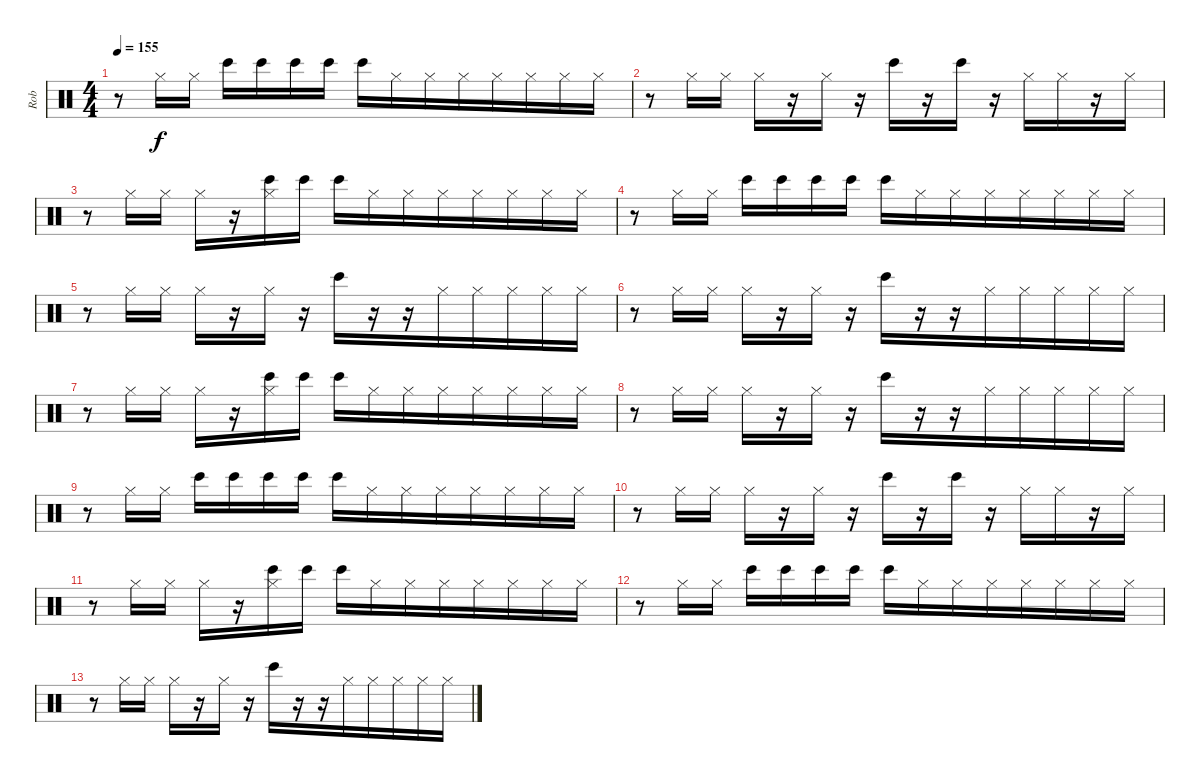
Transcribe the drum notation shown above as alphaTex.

\track ("Rob" "Rob") {instrument percussion}
\staff {score}
\articulation defaults
\ts (4 4)
\tempo 155
\clef neutral
\ks c
r.8{dy f beam merge} "Hi-Hat (closed)".16 "Hi-Hat (closed)".16 "Bongo High (hit)".16{beam merge} "Bongo High (hit)".16 "Bongo High (hit)".16 "Bongo High (hit)".16 "Bongo High (hit)".16 "Hi-Hat (closed)".16{beam merge} "Hi-Hat (closed)".16 "Hi-Hat (closed)".16{beam merge} "Hi-Hat (closed)".16{beam merge} "Hi-Hat (closed)".16{beam merge} "Hi-Hat (closed)".16 "Hi-Hat (closed)".16 |
r.8{beam merge} "Hi-Hat (closed)".16 "Hi-Hat (closed)".16 "Hi-Hat (closed)".16{beam merge} r.16 "Hi-Hat (closed)".16 r.16 "Bongo High (hit)".16 r.16{beam merge} "Bongo High (hit)".16 r.16{beam merge} "Hi-Hat (closed)".16{beam merge} "Hi-Hat (closed)".16{beam merge} r.16 "Hi-Hat (closed)".16 |
r.8{beam merge} "Hi-Hat (closed)".16 "Hi-Hat (closed)".16 "Hi-Hat (closed)".16{beam merge} r.16 ("Hi-Hat (closed)" "Bongo High (hit)").16 "Bongo High (hit)".16 "Bongo High (hit)".16 "Hi-Hat (closed)".16{beam merge} "Hi-Hat (closed)".16 "Hi-Hat (closed)".16{beam merge} "Hi-Hat (closed)".16{beam merge} "Hi-Hat (closed)".16{beam merge} "Hi-Hat (closed)".16 "Hi-Hat (closed)".16 |
r.8{beam merge} "Hi-Hat (closed)".16 "Hi-Hat (closed)".16 "Bongo High (hit)".16{beam merge} "Bongo High (hit)".16 "Bongo High (hit)".16 "Bongo High (hit)".16 "Bongo High (hit)".16 "Hi-Hat (closed)".16{beam merge} "Hi-Hat (closed)".16 "Hi-Hat (closed)".16{beam merge} "Hi-Hat (closed)".16{beam merge} "Hi-Hat (closed)".16{beam merge} "Hi-Hat (closed)".16 "Hi-Hat (closed)".16 |
r.8{beam merge} "Hi-Hat (closed)".16 "Hi-Hat (closed)".16 "Hi-Hat (closed)".16{beam merge} r.16 "Hi-Hat (closed)".16 r.16 "Bongo High (hit)".16 r.16{beam merge} r.16 "Hi-Hat (closed)".16{beam merge} "Hi-Hat (closed)".16{beam merge} "Hi-Hat (closed)".16{beam merge} "Hi-Hat (closed)".16 "Hi-Hat (closed)".16 |
r.8{beam merge} "Hi-Hat (closed)".16 "Hi-Hat (closed)".16 "Hi-Hat (closed)".16{beam merge} r.16 "Hi-Hat (closed)".16 r.16 "Bongo High (hit)".16 r.16{beam merge} r.16 "Hi-Hat (closed)".16{beam merge} "Hi-Hat (closed)".16{beam merge} "Hi-Hat (closed)".16{beam merge} "Hi-Hat (closed)".16 "Hi-Hat (closed)".16 |
r.8{beam merge} "Hi-Hat (closed)".16 "Hi-Hat (closed)".16 "Hi-Hat (closed)".16{beam merge} r.16 ("Hi-Hat (closed)" "Bongo High (hit)").16 "Bongo High (hit)".16 "Bongo High (hit)".16 "Hi-Hat (closed)".16{beam merge} "Hi-Hat (closed)".16 "Hi-Hat (closed)".16{beam merge} "Hi-Hat (closed)".16{beam merge} "Hi-Hat (closed)".16{beam merge} "Hi-Hat (closed)".16 "Hi-Hat (closed)".16 |
r.8{beam merge} "Hi-Hat (closed)".16 "Hi-Hat (closed)".16 "Hi-Hat (closed)".16{beam merge} r.16 "Hi-Hat (closed)".16 r.16 "Bongo High (hit)".16 r.16{beam merge} r.16 "Hi-Hat (closed)".16{beam merge} "Hi-Hat (closed)".16{beam merge} "Hi-Hat (closed)".16{beam merge} "Hi-Hat (closed)".16 "Hi-Hat (closed)".16 |
r.8{beam merge} "Hi-Hat (closed)".16 "Hi-Hat (closed)".16 "Bongo High (hit)".16{beam merge} "Bongo High (hit)".16 "Bongo High (hit)".16 "Bongo High (hit)".16 "Bongo High (hit)".16 "Hi-Hat (closed)".16{beam merge} "Hi-Hat (closed)".16 "Hi-Hat (closed)".16{beam merge} "Hi-Hat (closed)".16{beam merge} "Hi-Hat (closed)".16{beam merge} "Hi-Hat (closed)".16 "Hi-Hat (closed)".16 |
r.8{beam merge} "Hi-Hat (closed)".16 "Hi-Hat (closed)".16 "Hi-Hat (closed)".16{beam merge} r.16 "Hi-Hat (closed)".16 r.16 "Bongo High (hit)".16 r.16{beam merge} "Bongo High (hit)".16 r.16{beam merge} "Hi-Hat (closed)".16{beam merge} "Hi-Hat (closed)".16{beam merge} r.16 "Hi-Hat (closed)".16 |
r.8{beam merge} "Hi-Hat (closed)".16 "Hi-Hat (closed)".16 "Hi-Hat (closed)".16{beam merge} r.16 ("Hi-Hat (closed)" "Bongo High (hit)").16 "Bongo High (hit)".16 "Bongo High (hit)".16 "Hi-Hat (closed)".16{beam merge} "Hi-Hat (closed)".16 "Hi-Hat (closed)".16{beam merge} "Hi-Hat (closed)".16{beam merge} "Hi-Hat (closed)".16{beam merge} "Hi-Hat (closed)".16 "Hi-Hat (closed)".16 |
r.8{beam merge} "Hi-Hat (closed)".16 "Hi-Hat (closed)".16 "Bongo High (hit)".16{beam merge} "Bongo High (hit)".16 "Bongo High (hit)".16 "Bongo High (hit)".16 "Bongo High (hit)".16 "Hi-Hat (closed)".16{beam merge} "Hi-Hat (closed)".16 "Hi-Hat (closed)".16{beam merge} "Hi-Hat (closed)".16{beam merge} "Hi-Hat (closed)".16{beam merge} "Hi-Hat (closed)".16 "Hi-Hat (closed)".16 |
r.8{beam merge} "Hi-Hat (closed)".16 "Hi-Hat (closed)".16 "Hi-Hat (closed)".16{beam merge} r.16 "Hi-Hat (closed)".16 r.16 "Bongo High (hit)".16 r.16{beam merge} r.16 "Hi-Hat (closed)".16{beam merge} "Hi-Hat (closed)".16{beam merge} "Hi-Hat (closed)".16{beam merge} "Hi-Hat (closed)".16 "Hi-Hat (closed)".16
